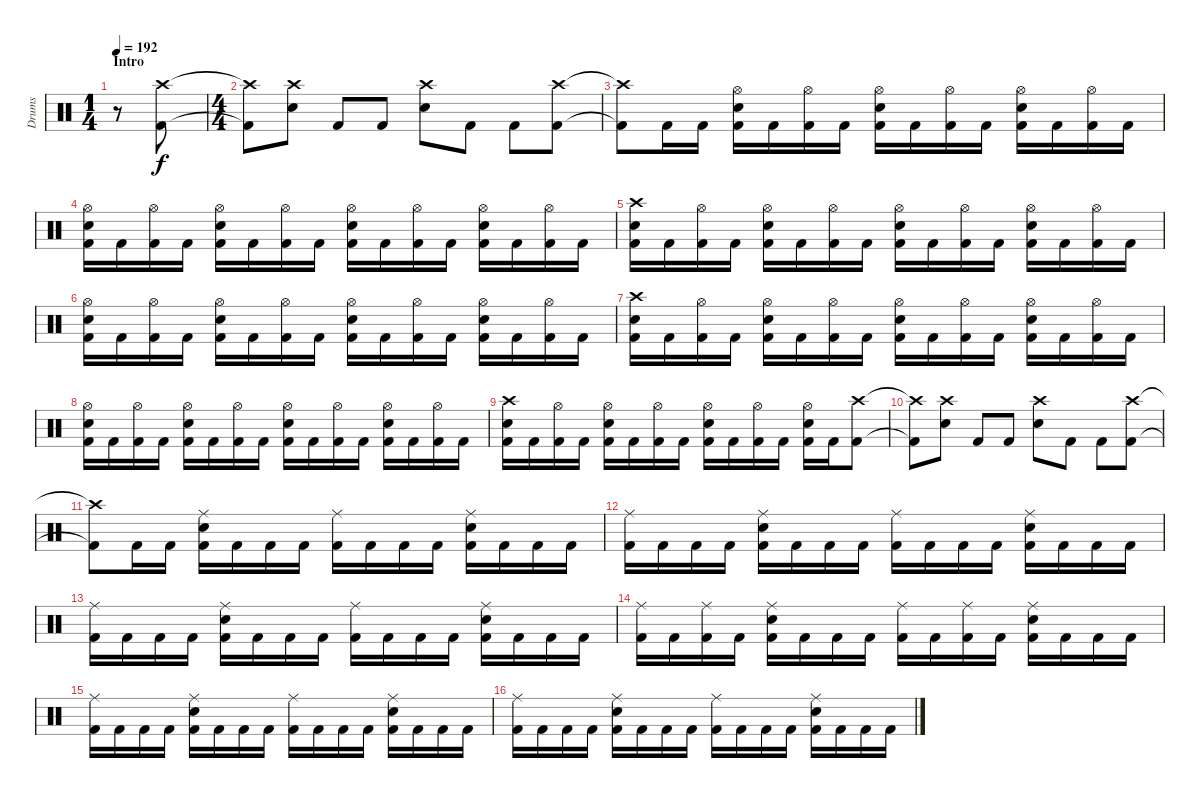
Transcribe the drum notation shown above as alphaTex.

\track ("Drums" "Drums") {instrument percussion}
\staff {score}
\articulation defaults
\ts (1 4)
\section ("" "Intro")
\tempo 192
\clef neutral
\ks c
r.8{dy f} ("Crash high (hit)" "Kick (hit) 2").8 |
\ts (4 4)
("Crash high (hit)"{t} "Kick (hit) 2"{t}).8 ("Crash high (hit)" "Electric Snare (hit)").8 "Kick (hit) 2".8 "Kick (hit) 2".8 ("Crash high (hit)" "Electric Snare (hit)").8 "Kick (hit) 2".8 "Kick (hit) 2".8 ("Crash high (hit)" "Kick (hit) 2").8 |
("Crash high (hit)"{t} "Kick (hit) 2"{t}).8 "Kick (hit) 2".16 "Kick (hit) 2".16 ("Hi-Hat (open)" "Electric Snare (hit)" "Kick (hit) 2").16 "Kick (hit) 2".16 ("Hi-Hat (open)" "Kick (hit) 2").16 "Kick (hit) 2".16 ("Hi-Hat (open)" "Electric Snare (hit)" "Kick (hit) 2").16 "Kick (hit) 2".16 ("Hi-Hat (open)" "Kick (hit) 2").16 "Kick (hit) 2".16 ("Hi-Hat (open)" "Electric Snare (hit)" "Kick (hit) 2").16 "Kick (hit) 2".16 ("Hi-Hat (open)" "Kick (hit) 2").16 "Kick (hit) 2".16 |
("Hi-Hat (open)" "Electric Snare (hit)" "Kick (hit) 2").16 "Kick (hit) 2".16 ("Hi-Hat (open)" "Kick (hit) 2").16 "Kick (hit) 2".16 ("Hi-Hat (open)" "Electric Snare (hit)" "Kick (hit) 2").16 "Kick (hit) 2".16 ("Hi-Hat (open)" "Kick (hit) 2").16 "Kick (hit) 2".16 ("Hi-Hat (open)" "Electric Snare (hit)" "Kick (hit) 2").16 "Kick (hit) 2".16 ("Hi-Hat (open)" "Kick (hit) 2").16 "Kick (hit) 2".16 ("Hi-Hat (open)" "Electric Snare (hit)" "Kick (hit) 2").16 "Kick (hit) 2".16 ("Hi-Hat (open)" "Kick (hit) 2").16 "Kick (hit) 2".16 |
("Crash high (hit)" "Electric Snare (hit)" "Kick (hit) 2").16 "Kick (hit) 2".16 ("Hi-Hat (open)" "Kick (hit) 2").16 "Kick (hit) 2".16 ("Hi-Hat (open)" "Electric Snare (hit)" "Kick (hit) 2").16 "Kick (hit) 2".16 ("Hi-Hat (open)" "Kick (hit) 2").16 "Kick (hit) 2".16 ("Hi-Hat (open)" "Electric Snare (hit)" "Kick (hit) 2").16 "Kick (hit) 2".16 ("Hi-Hat (open)" "Kick (hit) 2").16 "Kick (hit) 2".16 ("Hi-Hat (open)" "Electric Snare (hit)" "Kick (hit) 2").16 "Kick (hit) 2".16 ("Hi-Hat (open)" "Kick (hit) 2").16 "Kick (hit) 2".16 |
("Hi-Hat (open)" "Electric Snare (hit)" "Kick (hit) 2").16 "Kick (hit) 2".16 ("Hi-Hat (open)" "Kick (hit) 2").16 "Kick (hit) 2".16 ("Hi-Hat (open)" "Electric Snare (hit)" "Kick (hit) 2").16 "Kick (hit) 2".16 ("Hi-Hat (open)" "Kick (hit) 2").16 "Kick (hit) 2".16 ("Hi-Hat (open)" "Electric Snare (hit)" "Kick (hit) 2").16 "Kick (hit) 2".16 ("Hi-Hat (open)" "Kick (hit) 2").16 "Kick (hit) 2".16 ("Hi-Hat (open)" "Electric Snare (hit)" "Kick (hit) 2").16 "Kick (hit) 2".16 ("Hi-Hat (open)" "Kick (hit) 2").16 "Kick (hit) 2".16 |
("Crash high (hit)" "Electric Snare (hit)" "Kick (hit) 2").16 "Kick (hit) 2".16 ("Hi-Hat (open)" "Kick (hit) 2").16 "Kick (hit) 2".16 ("Hi-Hat (open)" "Electric Snare (hit)" "Kick (hit) 2").16 "Kick (hit) 2".16 ("Hi-Hat (open)" "Kick (hit) 2").16 "Kick (hit) 2".16 ("Hi-Hat (open)" "Electric Snare (hit)" "Kick (hit) 2").16 "Kick (hit) 2".16 ("Hi-Hat (open)" "Kick (hit) 2").16 "Kick (hit) 2".16 ("Hi-Hat (open)" "Electric Snare (hit)" "Kick (hit) 2").16 "Kick (hit) 2".16 ("Hi-Hat (open)" "Kick (hit) 2").16 "Kick (hit) 2".16 |
("Hi-Hat (open)" "Electric Snare (hit)" "Kick (hit) 2").16 "Kick (hit) 2".16 ("Hi-Hat (open)" "Kick (hit) 2").16 "Kick (hit) 2".16 ("Hi-Hat (open)" "Electric Snare (hit)" "Kick (hit) 2").16 "Kick (hit) 2".16 ("Hi-Hat (open)" "Kick (hit) 2").16 "Kick (hit) 2".16 ("Hi-Hat (open)" "Electric Snare (hit)" "Kick (hit) 2").16 "Kick (hit) 2".16 ("Hi-Hat (open)" "Kick (hit) 2").16 "Kick (hit) 2".16 ("Hi-Hat (open)" "Electric Snare (hit)" "Kick (hit) 2").16 "Kick (hit) 2".16 ("Hi-Hat (open)" "Kick (hit) 2").16 "Kick (hit) 2".16 |
("Crash high (hit)" "Electric Snare (hit)" "Kick (hit) 2").16 "Kick (hit) 2".16 ("Hi-Hat (open)" "Kick (hit) 2").16 "Kick (hit) 2".16 ("Hi-Hat (open)" "Electric Snare (hit)" "Kick (hit) 2").16 "Kick (hit) 2".16 ("Hi-Hat (open)" "Kick (hit) 2").16 "Kick (hit) 2".16 ("Hi-Hat (open)" "Electric Snare (hit)" "Kick (hit) 2").16 "Kick (hit) 2".16 ("Hi-Hat (open)" "Kick (hit) 2").16 "Kick (hit) 2".16 ("Hi-Hat (open)" "Electric Snare (hit)" "Kick (hit) 2").16 "Kick (hit) 2".16 ("Crash high (hit)" "Kick (hit) 2").8 |
("Crash high (hit)"{t} "Kick (hit) 2"{t}).8 ("Crash high (hit)" "Electric Snare (hit)").8 "Kick (hit) 2".8 "Kick (hit) 2".8 ("Crash high (hit)" "Electric Snare (hit)").8 "Kick (hit) 2".8 "Kick (hit) 2".8 ("Crash high (hit)" "Kick (hit) 2").8 |
("Crash high (hit)"{t} "Kick (hit) 2"{t}).8 "Kick (hit) 2".16 "Kick (hit) 2".16 ("Ride (middle)" "Electric Snare (hit)" "Kick (hit) 2").16 "Kick (hit) 2".16 "Kick (hit) 2".16 "Kick (hit) 2".16 ("Ride (middle)" "Kick (hit) 2").16 "Kick (hit) 2".16 "Kick (hit) 2".16 "Kick (hit) 2".16 ("Ride (middle)" "Electric Snare (hit)" "Kick (hit) 2").16 "Kick (hit) 2".16 "Kick (hit) 2".16 "Kick (hit) 2".16 |
("Ride (middle)" "Kick (hit) 2").16 "Kick (hit) 2".16 "Kick (hit) 2".16 "Kick (hit) 2".16 ("Ride (middle)" "Electric Snare (hit)" "Kick (hit) 2").16 "Kick (hit) 2".16 "Kick (hit) 2".16 "Kick (hit) 2".16 ("Ride (middle)" "Kick (hit) 2").16 "Kick (hit) 2".16 "Kick (hit) 2".16 "Kick (hit) 2".16 ("Ride (middle)" "Electric Snare (hit)" "Kick (hit) 2").16 "Kick (hit) 2".16 "Kick (hit) 2".16 "Kick (hit) 2".16 |
("Ride (middle)" "Kick (hit) 2").16 "Kick (hit) 2".16 "Kick (hit) 2".16 "Kick (hit) 2".16 ("Ride (middle)" "Electric Snare (hit)" "Kick (hit) 2").16 "Kick (hit) 2".16 "Kick (hit) 2".16 "Kick (hit) 2".16 ("Ride (middle)" "Kick (hit) 2").16 "Kick (hit) 2".16 "Kick (hit) 2".16 "Kick (hit) 2".16 ("Ride (middle)" "Electric Snare (hit)" "Kick (hit) 2").16 "Kick (hit) 2".16 "Kick (hit) 2".16 "Kick (hit) 2".16 |
("Ride (middle)" "Kick (hit) 2").16 "Kick (hit) 2".16 ("Ride (middle)" "Kick (hit) 2").16 "Kick (hit) 2".16 ("Ride (middle)" "Electric Snare (hit)" "Kick (hit) 2").16 "Kick (hit) 2".16 "Kick (hit) 2".16 "Kick (hit) 2".16 ("Ride (middle)" "Kick (hit) 2").16 "Kick (hit) 2".16 ("Ride (middle)" "Kick (hit) 2").16 "Kick (hit) 2".16 ("Ride (middle)" "Electric Snare (hit)" "Kick (hit) 2").16 "Kick (hit) 2".16 "Kick (hit) 2".16 "Kick (hit) 2".16 |
("Ride (middle)" "Kick (hit) 2").16 "Kick (hit) 2".16 "Kick (hit) 2".16 "Kick (hit) 2".16 ("Ride (middle)" "Electric Snare (hit)" "Kick (hit) 2").16 "Kick (hit) 2".16 "Kick (hit) 2".16 "Kick (hit) 2".16 ("Ride (middle)" "Kick (hit) 2").16 "Kick (hit) 2".16 "Kick (hit) 2".16 "Kick (hit) 2".16 ("Ride (middle)" "Electric Snare (hit)" "Kick (hit) 2").16 "Kick (hit) 2".16 "Kick (hit) 2".16 "Kick (hit) 2".16 |
("Ride (middle)" "Kick (hit) 2").16 "Kick (hit) 2".16 "Kick (hit) 2".16 "Kick (hit) 2".16 ("Ride (middle)" "Electric Snare (hit)" "Kick (hit) 2").16 "Kick (hit) 2".16 "Kick (hit) 2".16 "Kick (hit) 2".16 ("Ride (middle)" "Kick (hit) 2").16 "Kick (hit) 2".16 "Kick (hit) 2".16 "Kick (hit) 2".16 ("Ride (middle)" "Electric Snare (hit)" "Kick (hit) 2").16 "Kick (hit) 2".16 "Kick (hit) 2".16 "Kick (hit) 2".16
